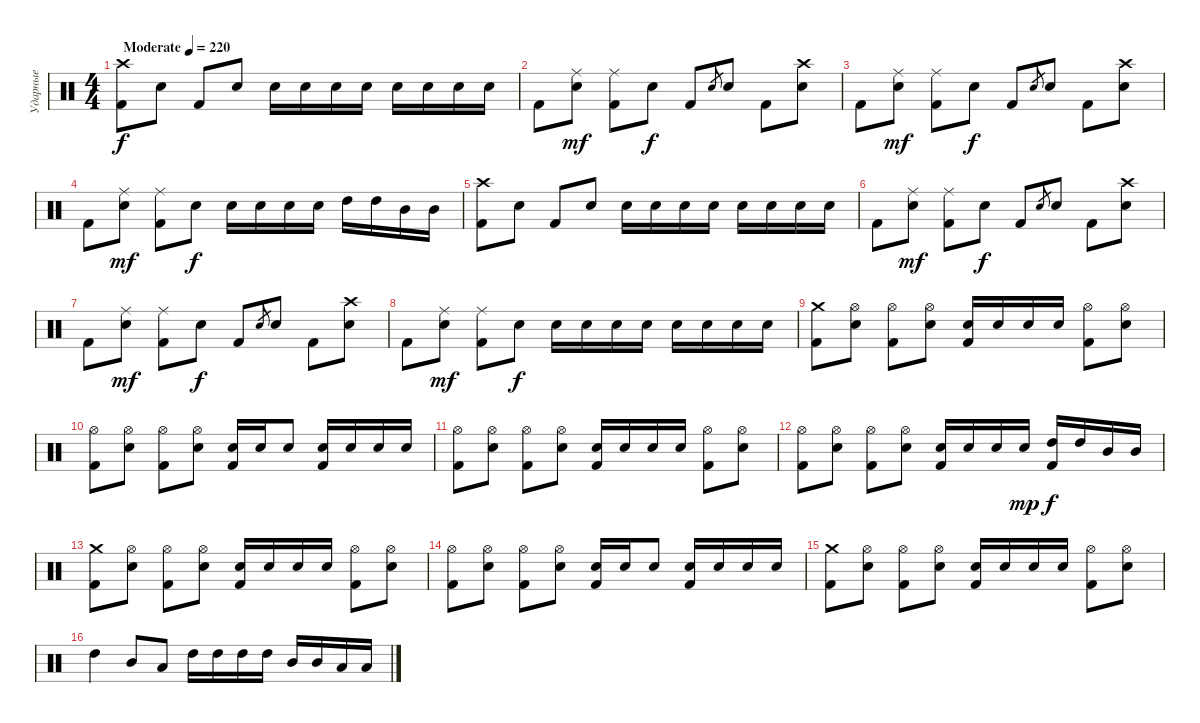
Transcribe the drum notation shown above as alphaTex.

\track ("Ударные" "Ударные") {instrument percussion}
\staff {score}
\articulation defaults
\ts (4 4)
\tempo (220 "Moderate")
\clef neutral
\ks c
("Crash high (hit)" "Kick (hit) 2").8{dy f} "Electric Snare (hit)".8 "Kick (hit) 2".8 "Electric Snare (hit)".8 "Electric Snare (hit)".16 "Electric Snare (hit)".16 "Electric Snare (hit)".16 "Electric Snare (hit)".16 "Electric Snare (hit)".16 "Electric Snare (hit)".16 "Electric Snare (hit)".16 "Electric Snare (hit)".16 |
"Kick (hit) 2".8 ("Ride (middle)" "Electric Snare (hit)").8{dy mf} ("Ride (middle)" "Kick (hit) 2").8 "Electric Snare (hit)".8{dy f} "Kick (hit) 2".8 "Electric Snare (hit)".8{gr} "Electric Snare (hit)".8 "Kick (hit) 2".8 ("Crash high (hit)" "Electric Snare (hit)").8 |
"Kick (hit) 2".8 ("Ride (middle)" "Electric Snare (hit)").8{dy mf} ("Ride (middle)" "Kick (hit) 2").8 "Electric Snare (hit)".8{dy f} "Kick (hit) 2".8 "Electric Snare (hit)".8{gr} "Electric Snare (hit)".8 "Kick (hit) 2".8 ("Crash high (hit)" "Electric Snare (hit)").8 |
"Kick (hit) 2".8 ("Ride (middle)" "Electric Snare (hit)").8{dy mf} ("Ride (middle)" "Kick (hit) 2").8 "Electric Snare (hit)".8{dy f} "Electric Snare (hit)".16 "Electric Snare (hit)".16 "Electric Snare (hit)".16 "Electric Snare (hit)".16 "High Tom (hit)".16{balance 4} "High Tom (hit)".16 "Mid Tom (hit)".16{balance 12} "Mid Tom (hit)".16 |
("Crash high (hit)" "Kick (hit) 2").8{balance 8} "Electric Snare (hit)".8 "Kick (hit) 2".8 "Electric Snare (hit)".8 "Electric Snare (hit)".16 "Electric Snare (hit)".16 "Electric Snare (hit)".16 "Electric Snare (hit)".16 "Electric Snare (hit)".16 "Electric Snare (hit)".16 "Electric Snare (hit)".16 "Electric Snare (hit)".16 |
"Kick (hit) 2".8 ("Ride (middle)" "Electric Snare (hit)").8{dy mf} ("Ride (middle)" "Kick (hit) 2").8 "Electric Snare (hit)".8{dy f} "Kick (hit) 2".8 "Electric Snare (hit)".8{gr} "Electric Snare (hit)".8 "Kick (hit) 2".8 ("Crash high (hit)" "Electric Snare (hit)").8 |
"Kick (hit) 2".8 ("Ride (middle)" "Electric Snare (hit)").8{dy mf} ("Ride (middle)" "Kick (hit) 2").8 "Electric Snare (hit)".8{dy f} "Kick (hit) 2".8 "Electric Snare (hit)".8{gr} "Electric Snare (hit)".8 "Kick (hit) 2".8 ("Crash high (hit)" "Electric Snare (hit)").8 |
"Kick (hit) 2".8 ("Ride (middle)" "Electric Snare (hit)").8{dy mf} ("Ride (middle)" "Kick (hit) 2").8 "Electric Snare (hit)".8{dy f} "Electric Snare (hit)".16 "Electric Snare (hit)".16 "Electric Snare (hit)".16 "Electric Snare (hit)".16 "Electric Snare (hit)".16 "Electric Snare (hit)".16 "Electric Snare (hit)".16 "Electric Snare (hit)".16 |
("Crash medium (hit)" "Kick (hit) 2").8 ("Hi-Hat (open)" "Electric Snare (hit)").8 ("Hi-Hat (open)" "Kick (hit) 2").8 ("Hi-Hat (open)" "Electric Snare (hit)").8 ("Electric Snare (hit)" "Kick (hit) 2").16 "Electric Snare (hit)".16 "Electric Snare (hit)".16 "Electric Snare (hit)".16 ("Hi-Hat (open)" "Kick (hit) 2").8 ("Hi-Hat (open)" "Electric Snare (hit)").8 |
("Hi-Hat (open)" "Kick (hit) 2").8 ("Hi-Hat (open)" "Electric Snare (hit)").8 ("Hi-Hat (open)" "Kick (hit) 2").8 ("Hi-Hat (open)" "Electric Snare (hit)").8 ("Electric Snare (hit)" "Kick (hit) 2").16 "Electric Snare (hit)".16 "Electric Snare (hit)".8 ("Electric Snare (hit)" "Kick (hit) 2").16 "Electric Snare (hit)".16 "Electric Snare (hit)".16 "Electric Snare (hit)".16 |
("Hi-Hat (open)" "Kick (hit) 2").8 ("Hi-Hat (open)" "Electric Snare (hit)").8 ("Hi-Hat (open)" "Kick (hit) 2").8 ("Hi-Hat (open)" "Electric Snare (hit)").8 ("Electric Snare (hit)" "Kick (hit) 2").16 "Electric Snare (hit)".16 "Electric Snare (hit)".16 "Electric Snare (hit)".16 ("Hi-Hat (open)" "Kick (hit) 2").8 ("Hi-Hat (open)" "Electric Snare (hit)").8 |
("Hi-Hat (open)" "Kick (hit) 2").8 ("Hi-Hat (open)" "Electric Snare (hit)").8 ("Hi-Hat (open)" "Kick (hit) 2").8 ("Hi-Hat (open)" "Electric Snare (hit)").8 ("Electric Snare (hit)" "Kick (hit) 2").16 "Electric Snare (hit)".16 "Electric Snare (hit)".16 "Electric Snare (hit)".16{dy mp} ("High Tom (hit)" "Kick (hit) 2").16{dy f} "High Tom (hit)".16 "Mid Tom (hit)".16 "Mid Tom (hit)".16 |
("Crash medium (hit)" "Kick (hit) 2").8 ("Hi-Hat (open)" "Electric Snare (hit)").8 ("Hi-Hat (open)" "Kick (hit) 2").8 ("Hi-Hat (open)" "Electric Snare (hit)").8 ("Electric Snare (hit)" "Kick (hit) 2").16 "Electric Snare (hit)".16 "Electric Snare (hit)".16 "Electric Snare (hit)".16 ("Hi-Hat (open)" "Kick (hit) 2").8 ("Hi-Hat (open)" "Electric Snare (hit)").8 |
("Hi-Hat (open)" "Kick (hit) 2").8 ("Hi-Hat (open)" "Electric Snare (hit)").8 ("Hi-Hat (open)" "Kick (hit) 2").8 ("Hi-Hat (open)" "Electric Snare (hit)").8 ("Electric Snare (hit)" "Kick (hit) 2").16 "Electric Snare (hit)".16 "Electric Snare (hit)".8 ("Electric Snare (hit)" "Kick (hit) 2").16 "Electric Snare (hit)".16 "Electric Snare (hit)".16 "Electric Snare (hit)".16 |
("Crash medium (hit)" "Kick (hit) 2").8 ("Hi-Hat (open)" "Electric Snare (hit)").8 ("Hi-Hat (open)" "Kick (hit) 2").8 ("Hi-Hat (open)" "Electric Snare (hit)").8 ("Electric Snare (hit)" "Kick (hit) 2").16 "Electric Snare (hit)".16 "Electric Snare (hit)".16 "Electric Snare (hit)".16 ("Hi-Hat (open)" "Kick (hit) 2").8 ("Hi-Hat (open)" "Electric Snare (hit)").8 |
"High Tom (hit)".4 "Mid Tom (hit)".8 "Low Tom (hit)".8 "High Tom (hit)".16 "High Tom (hit)".16 "High Tom (hit)".16 "High Tom (hit)".16 "Mid Tom (hit)".16 "Mid Tom (hit)".16 "Low Tom (hit)".16 "Low Tom (hit)".16
